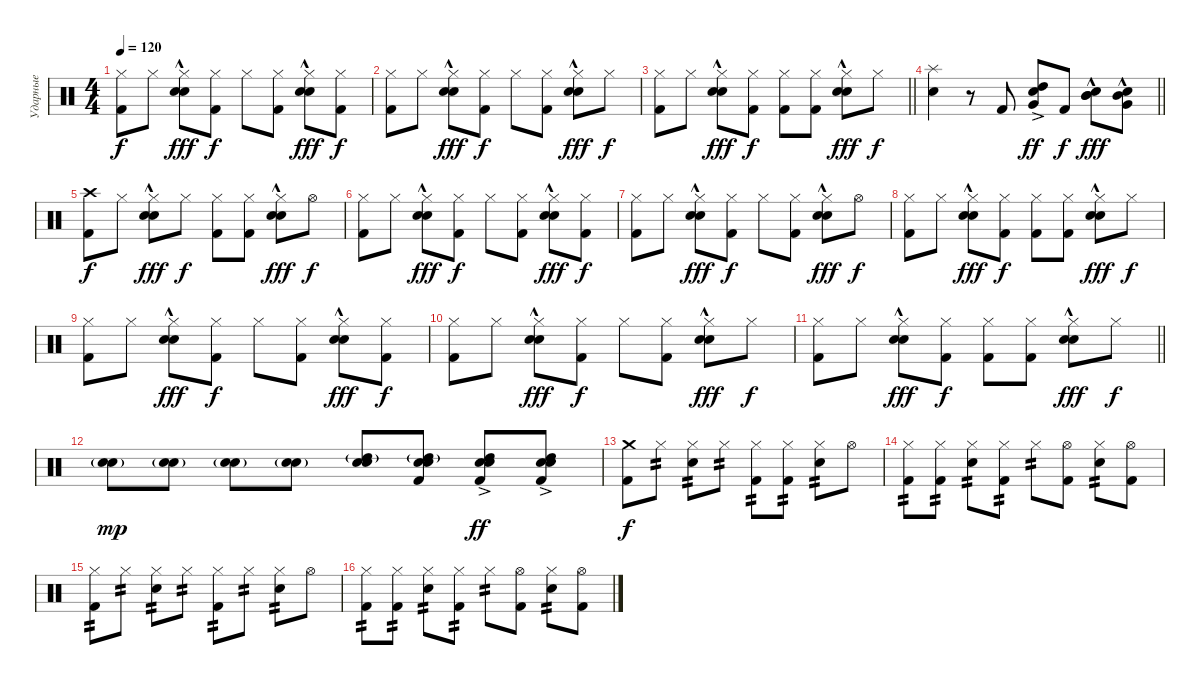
\track ("Ударные" "Ударные") {instrument percussion}
\staff {score}
\articulation defaults
\ts (4 4)
\tempo 120
\clef neutral
\ks c
("Hi-Hat (closed)" "Kick (hit) 2").8{dy f} "Hi-Hat (closed)".8 ("Hi-Hat (closed)" "Electric Snare (hit)" "Hand Clap (hit)"{hac}).8{dy fff} ("Hi-Hat (closed)" "Kick (hit) 2").8{dy f} "Hi-Hat (closed)".8 ("Hi-Hat (closed)" "Kick (hit) 2").8 ("Hi-Hat (closed)" "Electric Snare (hit)" "Hand Clap (hit)"{hac}).8{dy fff} ("Hi-Hat (closed)" "Kick (hit) 2").8{dy f} |
("Hi-Hat (closed)" "Kick (hit) 2").8 "Hi-Hat (closed)".8 ("Hi-Hat (closed)" "Electric Snare (hit)" "Hand Clap (hit)"{hac}).8{dy fff} ("Hi-Hat (closed)" "Kick (hit) 2").8{dy f} "Hi-Hat (closed)".8 ("Hi-Hat (closed)" "Kick (hit) 2").8 ("Hi-Hat (closed)" "Electric Snare (hit)" "Hand Clap (hit)"{hac}).8{dy fff} "Hi-Hat (closed)".8{dy f} |
\barLineRight lightlight
("Hi-Hat (closed)" "Kick (hit) 2").8 "Hi-Hat (closed)".8 ("Hi-Hat (closed)" "Electric Snare (hit)" "Hand Clap (hit)"{hac}).8{dy fff} ("Hi-Hat (closed)" "Kick (hit) 2").8{dy f} ("Hi-Hat (closed)" "Kick (hit) 2").8 ("Hi-Hat (closed)" "Kick (hit) 2").8 ("Hi-Hat (closed)" "Electric Snare (hit)" "Hand Clap (hit)"{hac}).8{dy fff} "Hi-Hat (closed)".8{dy f} |
\barLineRight lightlight
("Splash (hit)" "Electric Snare (hit)").4 r.8 "Kick (hit) 2".8 ("Very Low Tom (hit)"{ac} "High Tom (hit)" "Electric Snare (hit)").8{dy ff} "Kick (hit) 2".8{dy f} ("Mid Tom (hit)"{hac} "Mid Tom (hit)"{hac} "Electric Snare (hit)").8{dy fff} ("Mid Tom (hit)"{hac} "Very Low Tom (hit)" "Electric Snare (hit)").8 |
("Crash high (hit)" "Kick (hit) 2").8{dy f} "Hi-Hat (closed)".8 ("Hi-Hat (closed)" "Electric Snare (hit)" "Hand Clap (hit)"{hac}).8{dy fff} "Hi-Hat (closed)".8{dy f} ("Hi-Hat (closed)" "Kick (hit) 2").8 ("Hi-Hat (closed)" "Kick (hit) 2").8 ("Hi-Hat (closed)" "Electric Snare (hit)" "Hand Clap (hit)"{hac}).8{dy fff} "Hi-Hat (open)".8{dy f} |
("Hi-Hat (closed)" "Kick (hit) 2").8 "Hi-Hat (closed)".8 ("Hi-Hat (closed)" "Electric Snare (hit)" "Hand Clap (hit)"{hac}).8{dy fff} ("Hi-Hat (closed)" "Kick (hit) 2").8{dy f} "Hi-Hat (closed)".8 ("Hi-Hat (closed)" "Kick (hit) 2").8 ("Hi-Hat (closed)" "Electric Snare (hit)" "Hand Clap (hit)"{hac}).8{dy fff} ("Hi-Hat (closed)" "Kick (hit) 2").8{dy f} |
("Hi-Hat (closed)" "Kick (hit) 2").8 "Hi-Hat (closed)".8 ("Hi-Hat (closed)" "Electric Snare (hit)" "Hand Clap (hit)"{hac}).8{dy fff} ("Hi-Hat (closed)" "Kick (hit) 2").8{dy f} "Hi-Hat (closed)".8 ("Hi-Hat (closed)" "Kick (hit) 2").8 ("Hi-Hat (closed)" "Electric Snare (hit)" "Hand Clap (hit)"{hac}).8{dy fff} "Hi-Hat (open)".8{dy f} |
("Hi-Hat (closed)" "Kick (hit) 2").8 "Hi-Hat (closed)".8 ("Hi-Hat (closed)" "Electric Snare (hit)" "Hand Clap (hit)"{hac}).8{dy fff} ("Hi-Hat (closed)" "Kick (hit) 2").8{dy f} ("Hi-Hat (closed)" "Kick (hit) 2").8 ("Hi-Hat (closed)" "Kick (hit) 2").8 ("Hi-Hat (closed)" "Electric Snare (hit)" "Hand Clap (hit)"{hac}).8{dy fff} "Hi-Hat (closed)".8{dy f} |
("Hi-Hat (closed)" "Kick (hit) 2").8 "Hi-Hat (closed)".8 ("Hi-Hat (closed)" "Electric Snare (hit)" "Hand Clap (hit)"{hac}).8{dy fff} ("Hi-Hat (closed)" "Kick (hit) 2").8{dy f} "Hi-Hat (closed)".8 ("Hi-Hat (closed)" "Kick (hit) 2").8 ("Hi-Hat (closed)" "Electric Snare (hit)" "Hand Clap (hit)"{hac}).8{dy fff} ("Hi-Hat (closed)" "Kick (hit) 2").8{dy f} |
("Hi-Hat (closed)" "Kick (hit) 2").8 "Hi-Hat (closed)".8 ("Hi-Hat (closed)" "Electric Snare (hit)" "Hand Clap (hit)"{hac}).8{dy fff} ("Hi-Hat (closed)" "Kick (hit) 2").8{dy f} "Hi-Hat (closed)".8 ("Hi-Hat (closed)" "Kick (hit) 2").8 ("Hi-Hat (closed)" "Electric Snare (hit)" "Hand Clap (hit)"{hac}).8{dy fff} "Hi-Hat (closed)".8{dy f} |
\barLineRight lightlight
("Hi-Hat (closed)" "Kick (hit) 2").8 "Hi-Hat (closed)".8 ("Hi-Hat (closed)" "Electric Snare (hit)" "Hand Clap (hit)"{hac}).8{dy fff} ("Hi-Hat (closed)" "Kick (hit) 2").8{dy f} ("Hi-Hat (closed)" "Kick (hit) 2").8 ("Hi-Hat (closed)" "Kick (hit) 2").8 ("Hi-Hat (closed)" "Electric Snare (hit)" "Hand Clap (hit)"{hac}).8{dy fff} "Hi-Hat (closed)".8{dy f} |
("Electric Snare (hit)"{g} "Electric Snare (hit)"{g}).8{dy mp} ("Electric Snare (hit)"{g} "Electric Snare (hit)"{g}).8 ("Electric Snare (hit)"{g} "Electric Snare (hit)"{g}).8 ("Electric Snare (hit)" "Electric Snare (hit)"{g}).8 ("High Tom (hit)"{g} "Electric Snare (hit)" "Electric Snare (hit)").8 ("High Tom (hit)"{g} "Electric Snare (hit)" "Electric Snare (hit)" "Kick (hit) 2").8 ("High Tom (hit)"{ac} "Electric Snare (hit)" "Electric Snare (hit)" "Kick (hit) 2").8{dy ff} ("High Tom (hit)"{ac} "Electric Snare (hit)" "Electric Snare (hit)" "Kick (hit) 2").8 |
("Kick (hit) 2" "Crash medium (hit)").8{dy f} "Hi-Hat (closed)".8{tp 2} ("Hi-Hat (closed)" "Electric Snare (hit)").8{tp 2} "Hi-Hat (closed)".8{tp 2} ("Hi-Hat (closed)" "Kick (hit) 2").8{tp 2} ("Hi-Hat (closed)" "Kick (hit) 2").8{tp 2} ("Hi-Hat (closed)" "Electric Snare (hit)").8{tp 2} "Hi-Hat (open)".8 |
("Kick (hit) 2" "Hi-Hat (closed)").8{tp 2} ("Kick (hit) 2" "Hi-Hat (closed)").8{tp 2} ("Electric Snare (hit)" "Hi-Hat (closed)").8{tp 2} ("Kick (hit) 2" "Hi-Hat (closed)").8{tp 2} "Hi-Hat (closed)".8{tp 2} ("Kick (hit) 2" "Hi-Hat (open)").8 ("Electric Snare (hit)" "Hi-Hat (closed)").8{tp 2} ("Kick (hit) 2" "Hi-Hat (open)").8 |
("Kick (hit) 2" "Hi-Hat (closed)").8{tp 2} "Hi-Hat (closed)".8{tp 2} ("Electric Snare (hit)" "Hi-Hat (closed)").8{tp 2} "Hi-Hat (closed)".8{tp 2} ("Kick (hit) 2" "Hi-Hat (closed)").8{tp 2} "Hi-Hat (closed)".8{tp 2} ("Electric Snare (hit)" "Hi-Hat (closed)").8{tp 2} "Hi-Hat (open)".8 |
("Kick (hit) 2" "Hi-Hat (closed)").8{tp 2} ("Kick (hit) 2" "Hi-Hat (closed)").8{tp 2} ("Electric Snare (hit)" "Hi-Hat (closed)").8{tp 2} ("Kick (hit) 2" "Hi-Hat (closed)").8{tp 2} "Hi-Hat (closed)".8{tp 2} ("Kick (hit) 2" "Hi-Hat (open)").8 ("Electric Snare (hit)" "Hi-Hat (closed)").8{tp 2} ("Kick (hit) 2" "Hi-Hat (open)").8
